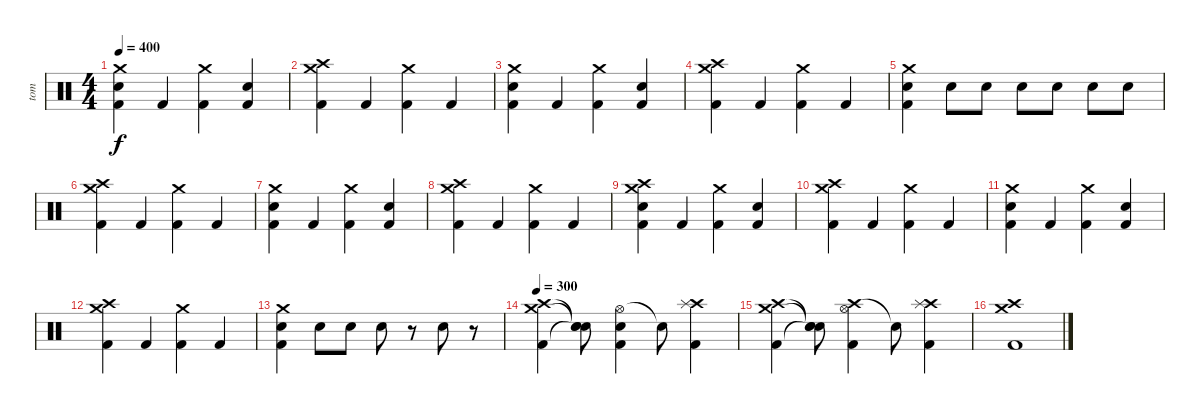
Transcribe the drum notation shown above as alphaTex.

\track ("tom" "tom") {instrument percussion}
\staff {score}
\articulation defaults
\ts (4 4)
\tempo 400
\clef neutral
\ks c
("Crash medium (hit)" "Electric Snare (hit)" "Kick (hit) 2").4{dy f} "Kick (hit) 2".4 ("Crash medium (hit)" "Kick (hit) 2").4 ("Electric Snare (hit)" "Kick (hit) 2").4 |
("Crash high (hit)" "Crash medium (hit)" "Kick (hit) 2").4 "Kick (hit) 2".4 ("Crash medium (hit)" "Kick (hit) 2").4 "Kick (hit) 2".4 |
("Crash medium (hit)" "Electric Snare (hit)" "Kick (hit) 2").4 "Kick (hit) 2".4 ("Crash medium (hit)" "Kick (hit) 2").4 ("Electric Snare (hit)" "Kick (hit) 2").4 |
("Crash high (hit)" "Crash medium (hit)" "Kick (hit) 2").4 "Kick (hit) 2".4 ("Crash medium (hit)" "Kick (hit) 2").4 "Kick (hit) 2".4 |
("Crash medium (hit)" "Electric Snare (hit)" "Kick (hit) 2").4 "Electric Snare (hit)".8 "Electric Snare (hit)".8 "Electric Snare (hit)".8 "Electric Snare (hit)".8 "Electric Snare (hit)".8 "Electric Snare (hit)".8 |
("Crash high (hit)" "Crash medium (hit)" "Kick (hit) 2").4 "Kick (hit) 2".4 ("Crash medium (hit)" "Kick (hit) 2").4 "Kick (hit) 2".4 |
("Crash medium (hit)" "Electric Snare (hit)" "Kick (hit) 2").4 "Kick (hit) 2".4 ("Crash medium (hit)" "Kick (hit) 2").4 ("Electric Snare (hit)" "Kick (hit) 2").4 |
("Crash high (hit)" "Crash medium (hit)" "Kick (hit) 2").4 "Kick (hit) 2".4 ("Crash medium (hit)" "Kick (hit) 2").4 "Kick (hit) 2".4 |
("Crash high (hit)" "Crash medium (hit)" "Electric Snare (hit)" "Kick (hit) 2").4 "Kick (hit) 2".4 ("Crash medium (hit)" "Kick (hit) 2").4 ("Electric Snare (hit)" "Kick (hit) 2").4 |
("Crash high (hit)" "Crash medium (hit)" "Kick (hit) 2").4 "Kick (hit) 2".4 ("Crash medium (hit)" "Kick (hit) 2").4 "Kick (hit) 2".4 |
("Crash medium (hit)" "Electric Snare (hit)" "Kick (hit) 2").4 "Kick (hit) 2".4 ("Crash medium (hit)" "Kick (hit) 2").4 ("Electric Snare (hit)" "Kick (hit) 2").4 |
("Crash high (hit)" "Crash medium (hit)" "Kick (hit) 2").4 "Kick (hit) 2".4 ("Crash medium (hit)" "Kick (hit) 2").4 "Kick (hit) 2".4 |
("Crash medium (hit)" "Electric Snare (hit)" "Kick (hit) 2").4 "Electric Snare (hit)".8 "Electric Snare (hit)".8 "Electric Snare (hit)".8 r.8 "Electric Snare (hit)".8 r.8 |
\tempo 300
("Crash medium (hit)" "Crash high (hit)" "Kick (hit) 2").4 ("Snare (hit)"{t} "Snare (hit)"{t} "Snare (hit)"{t}).8 ("Hi-Hat (open)" "Electric Snare (hit)" "Kick (hit) 2").4 "Snare (hit)"{t}.8 ("Crash high (hit)" "Splash (hit)" "Kick (hit) 2").4 |
("Crash medium (hit)" "Crash high (hit)" "Kick (hit) 2").4 ("Snare (hit)"{t} "Snare (hit)"{t} "Snare (hit)"{t}).8 ("Crash high (hit)" "Hi-Hat (open)" "Kick (hit) 2").4 "Snare (hit)"{t}.8 ("Crash high (hit)" "Splash (hit)" "Kick (hit) 2").4 |
("Crash high (hit)" "Crash medium (hit)" "Kick (hit) 2").1
